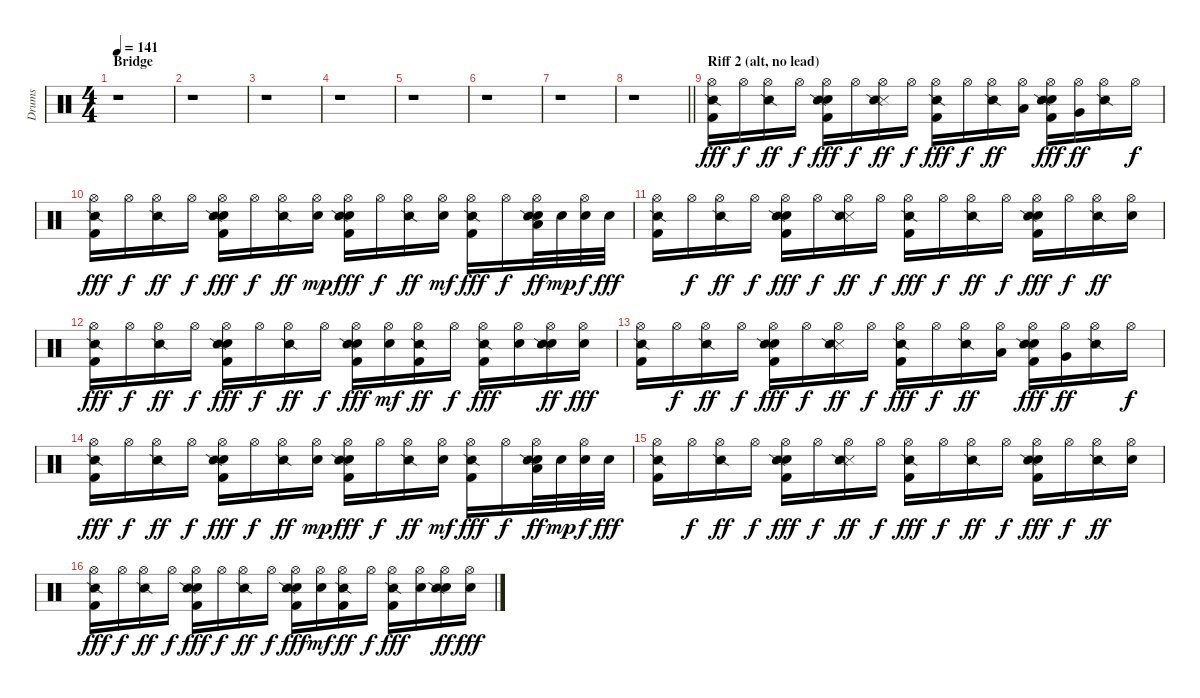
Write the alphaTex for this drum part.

\track ("Drums" "Drums") {instrument percussion}
\staff {score}
\articulation defaults
\ts (4 4)
\section ("" "Bridge")
\tempo 141
\clef neutral
\ks c
r.1{dy fff} |
r.1 |
r.1 |
r.1 |
r.1 |
r.1 |
r.1 |
\barLineRight lightlight
r.1 |
\section ("" "Riff 2 (alt, no lead)")
("Kick (hit) 2" "Hi-Hat (open)" "Snare (side stick) 2").16 "Hi-Hat (open)".16{dy f} ("Hi-Hat (open)" "Snare (side stick) 2").16{dy ff} "Hi-Hat (open)".16{dy f} ("Kick (hit) 2" "Snare (hit) 2" "Hi-Hat (open)" "Snare (side stick) 2").16{dy fff} "Hi-Hat (open)".16{dy f} ("Snare (side stick) 3" "Hi-Hat (open)" "Snare (side stick) 2").16{dy ff} "Hi-Hat (open)".16{dy f} ("Kick (hit) 2" "Hi-Hat (open)" "Snare (side stick) 2").16{dy fff} "Hi-Hat (open)".16{dy f} ("Hi-Hat (open)" "Snare (side stick) 2").16{dy ff} ("Hi-Hat (open)" "Low Floor Tom (hit)").16 ("Kick (hit) 2" "Snare (hit) 2" "Hi-Hat (open)" "Snare (side stick) 2").16{dy fff} ("Hi-Hat (open)" "Very Low Tom (hit)").16{dy ff} ("Hi-Hat (open)" "Snare (side stick) 2").16 "Hi-Hat (open)".16{dy f} |
("Kick (hit) 2" "Hi-Hat (open)" "Snare (side stick) 2").16{dy fff} "Hi-Hat (open)".16{dy f} ("Hi-Hat (open)" "Snare (side stick) 2").16{dy ff} "Hi-Hat (open)".16{dy f} ("Kick (hit) 2" "Snare (hit) 2" "Hi-Hat (open)" "Snare (side stick) 2").16{dy fff} "Hi-Hat (open)".16{dy f} ("Hi-Hat (open)" "Snare (side stick) 2").16{dy ff} ("Snare (hit) 2" "Hi-Hat (open)").16{dy mp} ("Kick (hit) 2" "Snare (hit) 2" "Hi-Hat (open)" "Snare (side stick) 2").16{dy fff} "Hi-Hat (open)".16{dy f} ("Hi-Hat (open)" "Snare (side stick) 2").16{dy ff} ("Snare (hit) 2" "Hi-Hat (open)").16{dy mf} ("Kick (hit) 2" "Hi-Hat (open)" "Snare (side stick) 2").16{dy fff} "Hi-Hat (open)".16{dy f} ("Snare (hit) 2" "Hi-Hat (open)" "Low Tom (hit)" "Snare (side stick) 2").32{dy ff} "Snare (hit) 2".32{dy mp} ("Snare (hit) 2" "Hi-Hat (open)").32{dy f} "Snare (hit) 2".32{dy fff} |
("Kick (hit) 2" "Hi-Hat (open)" "Snare (side stick) 2").16 "Hi-Hat (open)".16{dy f} ("Hi-Hat (open)" "Snare (side stick) 2").16{dy ff} "Hi-Hat (open)".16{dy f} ("Kick (hit) 2" "Snare (hit) 2" "Hi-Hat (open)" "Snare (side stick) 2").16{dy fff} "Hi-Hat (open)".16{dy f} ("Snare (side stick) 3" "Hi-Hat (open)" "Snare (side stick) 2").16{dy ff} "Hi-Hat (open)".16{dy f} ("Kick (hit) 2" "Hi-Hat (open)" "Snare (side stick) 2").16{dy fff} "Hi-Hat (open)".16{dy f} ("Hi-Hat (open)" "Snare (side stick) 2").16{dy ff} "Hi-Hat (open)".16{dy f} ("Kick (hit) 2" "Snare (hit) 2" "Hi-Hat (open)" "Snare (side stick) 2").16{dy fff} "Hi-Hat (open)".16{dy f} ("Hi-Hat (open)" "Snare (side stick) 2").16{dy ff} ("Snare (hit) 2" "Hi-Hat (open)").16 |
("Kick (hit) 2" "Hi-Hat (open)" "Snare (side stick) 2").16{dy fff} "Hi-Hat (open)".16{dy f} ("Hi-Hat (open)" "Snare (side stick) 2").16{dy ff} "Hi-Hat (open)".16{dy f} ("Kick (hit) 2" "Snare (hit) 2" "Hi-Hat (open)" "Snare (side stick) 2").16{dy fff} "Hi-Hat (open)".16{dy f} ("Hi-Hat (open)" "Snare (side stick) 2").16{dy ff} "Hi-Hat (open)".16{dy f} ("Kick (hit) 2" "Snare (hit) 2" "Hi-Hat (open)" "Snare (side stick) 2").16{dy fff} ("Snare (hit) 2" "Hi-Hat (open)").16{dy mf} ("Kick (hit) 2" "Hi-Hat (open)" "Snare (side stick) 2").16{dy ff} "Hi-Hat (open)".16{dy f} ("Kick (hit) 2" "Hi-Hat (open)" "Snare (side stick) 2").16{dy fff} ("Snare (hit) 2" "Hi-Hat (open)").16 ("Snare (hit) 2" "Hi-Hat (open)" "Snare (side stick) 2").16{dy ff} ("Snare (hit) 2" "Hi-Hat (open)").16{dy fff} |
("Kick (hit) 2" "Hi-Hat (open)" "Snare (side stick) 2").16 "Hi-Hat (open)".16{dy f} ("Hi-Hat (open)" "Snare (side stick) 2").16{dy ff} "Hi-Hat (open)".16{dy f} ("Kick (hit) 2" "Snare (hit) 2" "Hi-Hat (open)" "Snare (side stick) 2").16{dy fff} "Hi-Hat (open)".16{dy f} ("Snare (side stick) 3" "Hi-Hat (open)" "Snare (side stick) 2").16{dy ff} "Hi-Hat (open)".16{dy f} ("Kick (hit) 2" "Hi-Hat (open)" "Snare (side stick) 2").16{dy fff} "Hi-Hat (open)".16{dy f} ("Hi-Hat (open)" "Snare (side stick) 2").16{dy ff} ("Hi-Hat (open)" "Low Floor Tom (hit)").16 ("Kick (hit) 2" "Snare (hit) 2" "Hi-Hat (open)" "Snare (side stick) 2").16{dy fff} ("Hi-Hat (open)" "Very Low Tom (hit)").16{dy ff} ("Hi-Hat (open)" "Snare (side stick) 2").16 "Hi-Hat (open)".16{dy f} |
("Kick (hit) 2" "Hi-Hat (open)" "Snare (side stick) 2").16{dy fff} "Hi-Hat (open)".16{dy f} ("Hi-Hat (open)" "Snare (side stick) 2").16{dy ff} "Hi-Hat (open)".16{dy f} ("Kick (hit) 2" "Snare (hit) 2" "Hi-Hat (open)" "Snare (side stick) 2").16{dy fff} "Hi-Hat (open)".16{dy f} ("Hi-Hat (open)" "Snare (side stick) 2").16{dy ff} ("Snare (hit) 2" "Hi-Hat (open)").16{dy mp} ("Kick (hit) 2" "Snare (hit) 2" "Hi-Hat (open)" "Snare (side stick) 2").16{dy fff} "Hi-Hat (open)".16{dy f} ("Hi-Hat (open)" "Snare (side stick) 2").16{dy ff} ("Snare (hit) 2" "Hi-Hat (open)").16{dy mf} ("Kick (hit) 2" "Hi-Hat (open)" "Snare (side stick) 2").16{dy fff} "Hi-Hat (open)".16{dy f} ("Snare (hit) 2" "Hi-Hat (open)" "Low Tom (hit)" "Snare (side stick) 2").32{dy ff} "Snare (hit) 2".32{dy mp} ("Snare (hit) 2" "Hi-Hat (open)").32{dy f} "Snare (hit) 2".32{dy fff} |
("Kick (hit) 2" "Hi-Hat (open)" "Snare (side stick) 2").16 "Hi-Hat (open)".16{dy f} ("Hi-Hat (open)" "Snare (side stick) 2").16{dy ff} "Hi-Hat (open)".16{dy f} ("Kick (hit) 2" "Snare (hit) 2" "Hi-Hat (open)" "Snare (side stick) 2").16{dy fff} "Hi-Hat (open)".16{dy f} ("Snare (side stick) 3" "Hi-Hat (open)" "Snare (side stick) 2").16{dy ff} "Hi-Hat (open)".16{dy f} ("Kick (hit) 2" "Hi-Hat (open)" "Snare (side stick) 2").16{dy fff} "Hi-Hat (open)".16{dy f} ("Hi-Hat (open)" "Snare (side stick) 2").16{dy ff} "Hi-Hat (open)".16{dy f} ("Kick (hit) 2" "Snare (hit) 2" "Hi-Hat (open)" "Snare (side stick) 2").16{dy fff} "Hi-Hat (open)".16{dy f} ("Hi-Hat (open)" "Snare (side stick) 2").16{dy ff} ("Snare (hit) 2" "Hi-Hat (open)").16 |
("Kick (hit) 2" "Hi-Hat (open)" "Snare (side stick) 2").16{dy fff} "Hi-Hat (open)".16{dy f} ("Hi-Hat (open)" "Snare (side stick) 2").16{dy ff} "Hi-Hat (open)".16{dy f} ("Kick (hit) 2" "Snare (hit) 2" "Hi-Hat (open)" "Snare (side stick) 2").16{dy fff} "Hi-Hat (open)".16{dy f} ("Hi-Hat (open)" "Snare (side stick) 2").16{dy ff} "Hi-Hat (open)".16{dy f} ("Kick (hit) 2" "Snare (hit) 2" "Hi-Hat (open)" "Snare (side stick) 2").16{dy fff} ("Snare (hit) 2" "Hi-Hat (open)").16{dy mf} ("Kick (hit) 2" "Hi-Hat (open)" "Snare (side stick) 2").16{dy ff} "Hi-Hat (open)".16{dy f} ("Kick (hit) 2" "Hi-Hat (open)" "Snare (side stick) 2").16{dy fff} ("Snare (hit) 2" "Hi-Hat (open)").16 ("Snare (hit) 2" "Hi-Hat (open)" "Snare (side stick) 2").16{dy ff} ("Snare (hit) 2" "Hi-Hat (open)").16{dy fff}
